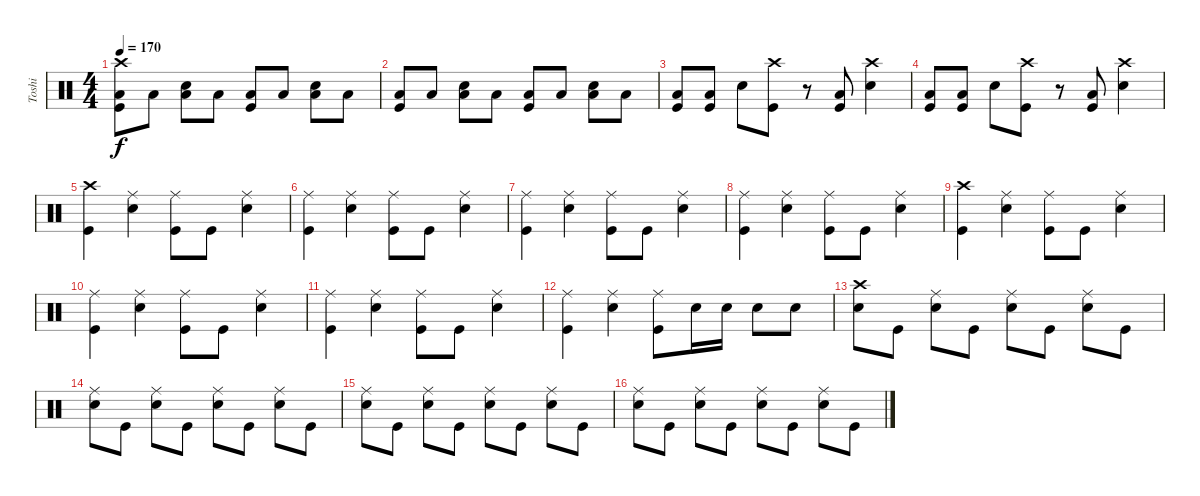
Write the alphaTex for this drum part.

\track ("Toshi" "Toshi") {instrument percussion}
\staff {score}
\articulation defaults
\ts (4 4)
\tempo 170
\clef neutral
\ks c
("Crash high (hit)" "Kick (hit)" "Low Floor Tom (hit)").8{dy f} "Low Floor Tom (hit)".8 ("Snare (hit) 2" "Low Floor Tom (hit)").8 "Low Floor Tom (hit)".8 ("Kick (hit)" "Low Floor Tom (hit)").8 "Low Floor Tom (hit)".8 ("Snare (hit) 2" "Low Floor Tom (hit)").8 "Low Floor Tom (hit)".8 |
("Kick (hit)" "Low Floor Tom (hit)").8 "Low Floor Tom (hit)".8 ("Snare (hit) 2" "Low Floor Tom (hit)").8 "Low Floor Tom (hit)".8 ("Kick (hit)" "Low Floor Tom (hit)").8 "Low Floor Tom (hit)".8 ("Snare (hit) 2" "Low Floor Tom (hit)").8 "Low Floor Tom (hit)".8 |
("Kick (hit)" "Low Floor Tom (hit)").8 ("Kick (hit)" "Low Floor Tom (hit)").8 "Snare (hit) 2".8 ("Crash high (hit)" "Kick (hit)").8 r.8 ("Kick (hit)" "Low Floor Tom (hit)").8 ("Crash high (hit)" "Snare (hit) 2").4 |
("Kick (hit)" "Low Floor Tom (hit)").8 ("Kick (hit)" "Low Floor Tom (hit)").8 "Snare (hit) 2".8 ("Crash high (hit)" "Kick (hit)").8 r.8 ("Kick (hit)" "Low Floor Tom (hit)").8 ("Crash high (hit)" "Snare (hit) 2").4 |
("Crash high (hit)" "Kick (hit)").4 ("Ride (middle)" "Snare (hit) 2").4 ("Ride (middle)" "Kick (hit)").8 "Kick (hit)".8 ("Ride (middle)" "Snare (hit) 2").4 |
("Ride (middle)" "Kick (hit)").4 ("Ride (middle)" "Snare (hit) 2").4 ("Ride (middle)" "Kick (hit)").8 "Kick (hit)".8 ("Ride (middle)" "Snare (hit) 2").4 |
("Ride (middle)" "Kick (hit)").4 ("Ride (middle)" "Snare (hit) 2").4 ("Ride (middle)" "Kick (hit)").8 "Kick (hit)".8 ("Ride (middle)" "Snare (hit) 2").4 |
("Ride (middle)" "Kick (hit)").4 ("Ride (middle)" "Snare (hit) 2").4 ("Ride (middle)" "Kick (hit)").8 "Kick (hit)".8 ("Ride (middle)" "Snare (hit) 2").4 |
("Crash high (hit)" "Kick (hit)").4 ("Ride (middle)" "Snare (hit) 2").4 ("Ride (middle)" "Kick (hit)").8 "Kick (hit)".8 ("Ride (middle)" "Snare (hit) 2").4 |
("Ride (middle)" "Kick (hit)").4 ("Ride (middle)" "Snare (hit) 2").4 ("Ride (middle)" "Kick (hit)").8 "Kick (hit)".8 ("Ride (middle)" "Snare (hit) 2").4 |
("Ride (middle)" "Kick (hit)").4 ("Ride (middle)" "Snare (hit) 2").4 ("Ride (middle)" "Kick (hit)").8 "Kick (hit)".8 ("Ride (middle)" "Snare (hit) 2").4 |
("Ride (middle)" "Kick (hit)").4 ("Ride (middle)" "Snare (hit) 2").4 ("Ride (middle)" "Kick (hit)").8 "Snare (hit) 2".16 "Snare (hit) 2".16 "Snare (hit) 2".8 "Snare (hit) 2".8 |
("Crash high (hit)" "Snare (hit) 2").8 "Kick (hit)".8 ("Ride (middle)" "Snare (hit) 2").8 "Kick (hit)".8 ("Ride (middle)" "Snare (hit) 2").8 "Kick (hit)".8 ("Ride (middle)" "Snare (hit) 2").8 "Kick (hit)".8 |
("Ride (middle)" "Snare (hit) 2").8 "Kick (hit)".8 ("Ride (middle)" "Snare (hit) 2").8 "Kick (hit)".8 ("Ride (middle)" "Snare (hit) 2").8 "Kick (hit)".8 ("Ride (middle)" "Snare (hit) 2").8 "Kick (hit)".8 |
("Ride (middle)" "Snare (hit) 2").8 "Kick (hit)".8 ("Ride (middle)" "Snare (hit) 2").8 "Kick (hit)".8 ("Ride (middle)" "Snare (hit) 2").8 "Kick (hit)".8 ("Ride (middle)" "Snare (hit) 2").8 "Kick (hit)".8 |
("Ride (middle)" "Snare (hit) 2").8 "Kick (hit)".8 ("Ride (middle)" "Snare (hit) 2").8 "Kick (hit)".8 ("Ride (middle)" "Snare (hit) 2").8 "Kick (hit)".8 ("Ride (middle)" "Snare (hit) 2").8 "Kick (hit)".8
